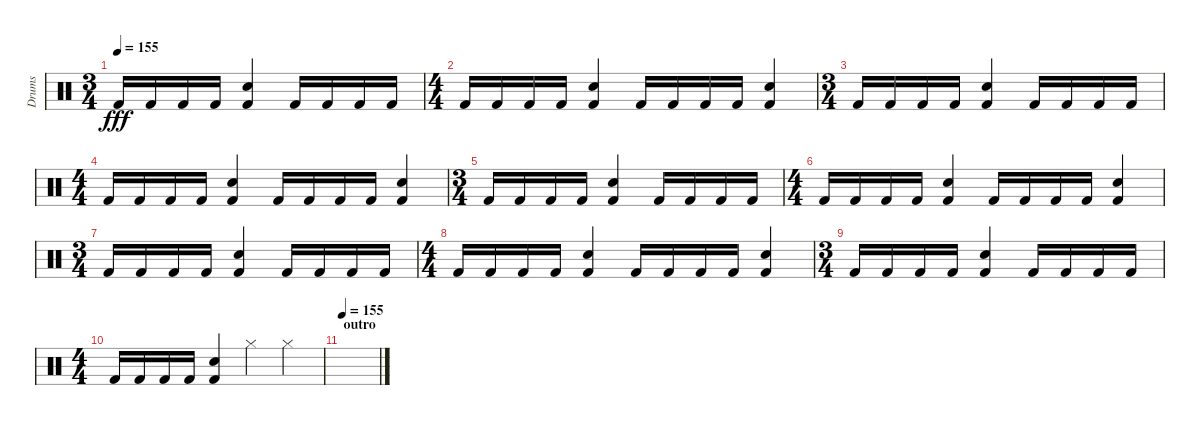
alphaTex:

\track ("Drums" "Drums") {instrument percussion}
\staff {score}
\articulation defaults
\ts (3 4)
\tempo 155
\clef neutral
\ks c "Kick (hit) 2".16{dy fff} "Kick (hit) 2".16 "Kick (hit) 2".16 "Kick (hit) 2".16
("Kick (hit) 2" "Snare (hit) 2").4 "Kick (hit) 2".16 "Kick (hit) 2".16 "Kick (hit) 2".16 "Kick (hit) 2".16 |
\ts (4 4)
"Kick (hit) 2".16 "Kick (hit) 2".16 "Kick (hit) 2".16 "Kick (hit) 2".16 ("Snare (hit) 2" "Kick (hit) 2").4 "Kick (hit) 2".16 "Kick (hit) 2".16 "Kick (hit) 2".16 "Kick (hit) 2".16 ("Snare (hit) 2" "Kick (hit) 2").4 |
\ts (3 4)
"Kick (hit) 2".16 "Kick (hit) 2".16 "Kick (hit) 2".16 "Kick (hit) 2".16 ("Kick (hit) 2" "Snare (hit) 2").4 "Kick (hit) 2".16 "Kick (hit) 2".16 "Kick (hit) 2".16 "Kick (hit) 2".16 |
\ts (4 4)
"Kick (hit) 2".16 "Kick (hit) 2".16 "Kick (hit) 2".16 "Kick (hit) 2".16 ("Snare (hit) 2" "Kick (hit) 2").4 "Kick (hit) 2".16 "Kick (hit) 2".16 "Kick (hit) 2".16 "Kick (hit) 2".16 ("Snare (hit) 2" "Kick (hit) 2").4 |
\ts (3 4)
"Kick (hit) 2".16 "Kick (hit) 2".16 "Kick (hit) 2".16 "Kick (hit) 2".16 ("Kick (hit) 2" "Snare (hit) 2").4 "Kick (hit) 2".16 "Kick (hit) 2".16 "Kick (hit) 2".16 "Kick (hit) 2".16 |
\ts (4 4)
"Kick (hit) 2".16 "Kick (hit) 2".16 "Kick (hit) 2".16 "Kick (hit) 2".16 ("Snare (hit) 2" "Kick (hit) 2").4 "Kick (hit) 2".16 "Kick (hit) 2".16 "Kick (hit) 2".16 "Kick (hit) 2".16 ("Snare (hit) 2" "Kick (hit) 2").4 |
\ts (3 4)
"Kick (hit) 2".16 "Kick (hit) 2".16 "Kick (hit) 2".16 "Kick (hit) 2".16 ("Kick (hit) 2" "Snare (hit) 2").4 "Kick (hit) 2".16 "Kick (hit) 2".16 "Kick (hit) 2".16 "Kick (hit) 2".16 |
\ts (4 4)
"Kick (hit) 2".16 "Kick (hit) 2".16 "Kick (hit) 2".16 "Kick (hit) 2".16 ("Snare (hit) 2" "Kick (hit) 2").4 "Kick (hit) 2".16 "Kick (hit) 2".16 "Kick (hit) 2".16 "Kick (hit) 2".16 ("Snare (hit) 2" "Kick (hit) 2").4 |
\ts (3 4)
"Kick (hit) 2".16 "Kick (hit) 2".16 "Kick (hit) 2".16 "Kick (hit) 2".16 ("Kick (hit) 2" "Snare (hit) 2").4 "Kick (hit) 2".16 "Kick (hit) 2".16 "Kick (hit) 2".16 "Kick (hit) 2".16 |
\ts (4 4)
"Kick (hit) 2".16 "Kick (hit) 2".16 "Kick (hit) 2".16 "Kick (hit) 2".16 ("Snare (hit) 2" "Kick (hit) 2").4 "Hi-Hat (closed)".4 "Hi-Hat (closed)".4 |
\section ("" "outro")
\tempo 155
